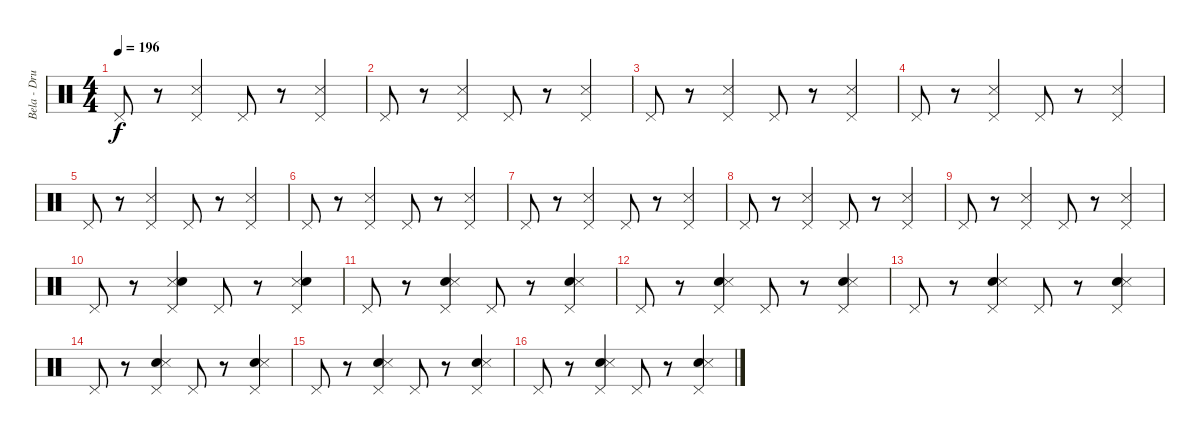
\track ("Bela - Drums" "Bela - Dru") {instrument percussion}
\staff {score}
\articulation defaults
\ts (4 4)
\tempo 196
\clef neutral
\ks c "Pedal Hi-Hat (hit)".8{dy f}
r.8 ("Pedal Hi-Hat (hit)" "Snare (side stick) 3").4 "Pedal Hi-Hat (hit)".8 r.8 ("Snare (side stick) 3" "Pedal Hi-Hat (hit)").4 |
"Pedal Hi-Hat (hit)".8 r.8 ("Pedal Hi-Hat (hit)" "Snare (side stick) 3").4 "Pedal Hi-Hat (hit)".8 r.8 ("Pedal Hi-Hat (hit)" "Snare (side stick) 3").4 |
"Pedal Hi-Hat (hit)".8 r.8 ("Pedal Hi-Hat (hit)" "Snare (side stick) 3").4 "Pedal Hi-Hat (hit)".8 r.8 ("Pedal Hi-Hat (hit)" "Snare (side stick) 3").4 |
"Pedal Hi-Hat (hit)".8 r.8 ("Pedal Hi-Hat (hit)" "Snare (side stick) 3").4 "Pedal Hi-Hat (hit)".8 r.8 ("Pedal Hi-Hat (hit)" "Snare (side stick) 3").4 |
"Pedal Hi-Hat (hit)".8 r.8 ("Pedal Hi-Hat (hit)" "Snare (side stick) 3").4 "Pedal Hi-Hat (hit)".8 r.8 ("Snare (side stick) 3" "Pedal Hi-Hat (hit)").4 |
"Pedal Hi-Hat (hit)".8 r.8 ("Snare (side stick) 3" "Pedal Hi-Hat (hit)").4 "Pedal Hi-Hat (hit)".8 r.8 ("Pedal Hi-Hat (hit)" "Snare (side stick) 3").4 |
"Pedal Hi-Hat (hit)".8 r.8 ("Snare (side stick) 3" "Pedal Hi-Hat (hit)").4 "Pedal Hi-Hat (hit)".8 r.8 ("Pedal Hi-Hat (hit)" "Snare (side stick) 3").4 |
"Pedal Hi-Hat (hit)".8 r.8 ("Snare (side stick) 3" "Pedal Hi-Hat (hit)").4 "Pedal Hi-Hat (hit)".8 r.8 ("Snare (side stick) 3" "Pedal Hi-Hat (hit)").4 |
"Pedal Hi-Hat (hit)".8 r.8 ("Pedal Hi-Hat (hit)" "Snare (side stick) 3").4 "Pedal Hi-Hat (hit)".8 r.8 ("Snare (side stick) 3" "Pedal Hi-Hat (hit)").4 |
"Pedal Hi-Hat (hit)".8 r.8 ("Pedal Hi-Hat (hit)" "Snare (side stick) 3" "Electric Snare (hit)").4 "Pedal Hi-Hat (hit)".8 r.8 ("Pedal Hi-Hat (hit)" "Snare (side stick) 3" "Electric Snare (hit)").4 |
"Pedal Hi-Hat (hit)".8 r.8 ("Electric Snare (hit)" "Pedal Hi-Hat (hit)" "Snare (side stick) 3").4 "Pedal Hi-Hat (hit)".8 r.8 ("Electric Snare (hit)" "Pedal Hi-Hat (hit)" "Snare (side stick) 3").4 |
"Pedal Hi-Hat (hit)".8 r.8 ("Electric Snare (hit)" "Pedal Hi-Hat (hit)" "Snare (side stick) 3").4 "Pedal Hi-Hat (hit)".8 r.8 ("Electric Snare (hit)" "Pedal Hi-Hat (hit)" "Snare (side stick) 3").4 |
"Pedal Hi-Hat (hit)".8 r.8 ("Electric Snare (hit)" "Pedal Hi-Hat (hit)" "Snare (side stick) 3").4 "Pedal Hi-Hat (hit)".8 r.8 ("Electric Snare (hit)" "Snare (side stick) 3" "Pedal Hi-Hat (hit)").4 |
"Pedal Hi-Hat (hit)".8 r.8 ("Electric Snare (hit)" "Snare (side stick) 3" "Pedal Hi-Hat (hit)").4 "Pedal Hi-Hat (hit)".8 r.8 ("Electric Snare (hit)" "Pedal Hi-Hat (hit)" "Snare (side stick) 3").4 |
"Pedal Hi-Hat (hit)".8 r.8 ("Electric Snare (hit)" "Snare (side stick) 3" "Pedal Hi-Hat (hit)").4 "Pedal Hi-Hat (hit)".8 r.8 ("Electric Snare (hit)" "Pedal Hi-Hat (hit)" "Snare (side stick) 3").4 |
"Pedal Hi-Hat (hit)".8 r.8 ("Electric Snare (hit)" "Snare (side stick) 3" "Pedal Hi-Hat (hit)").4 "Pedal Hi-Hat (hit)".8 r.8 ("Electric Snare (hit)" "Snare (side stick) 3" "Pedal Hi-Hat (hit)").4
